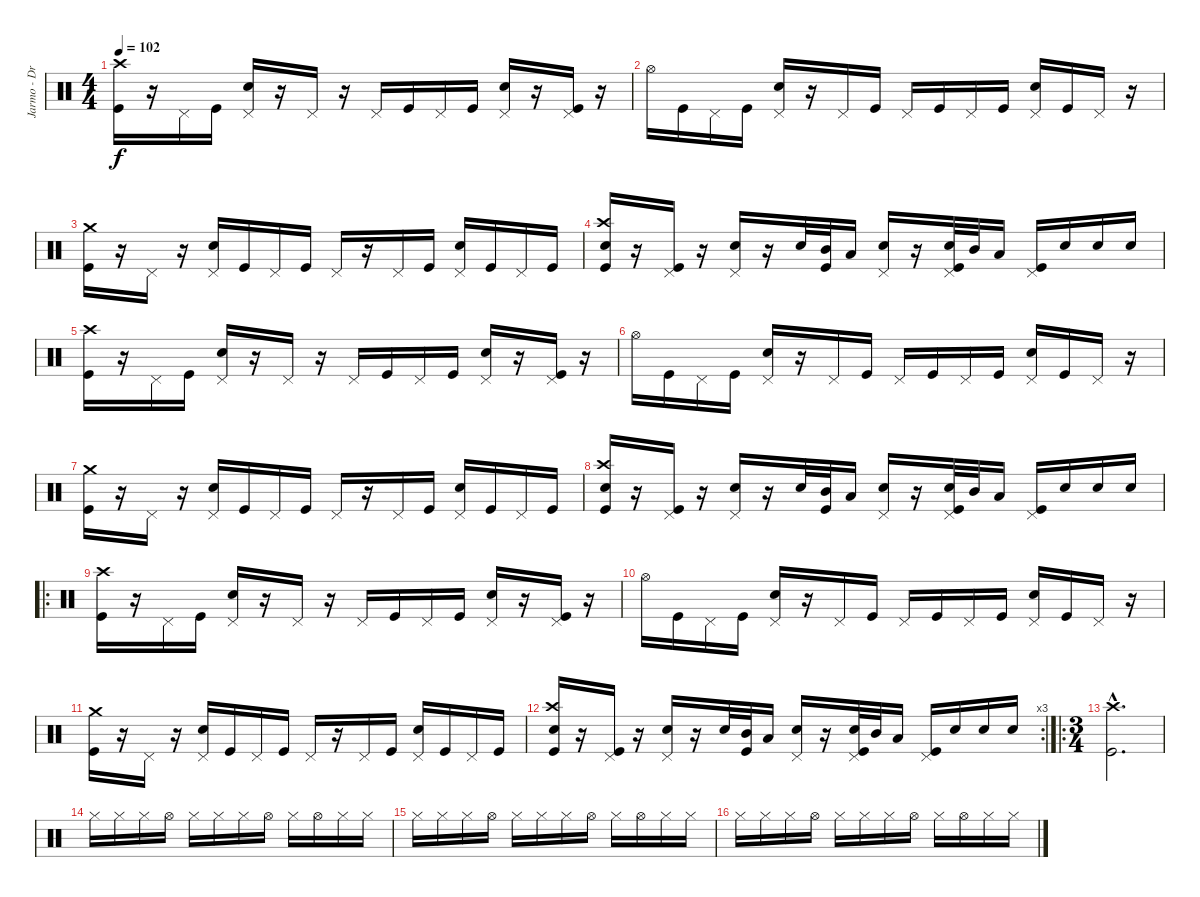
\track ("Jarmo - Drums" "Jarmo - Dr") {instrument percussion}
\staff {score}
\articulation defaults
\ts (4 4)
\tempo 102
\clef neutral
\ks c
("Kick (hit)" "Crash high (hit)").16{dy f} r.16 "Pedal Hi-Hat (hit)".16 "Kick (hit)".16 ("Electric Snare (hit)" "Pedal Hi-Hat (hit)").16 r.16 "Pedal Hi-Hat (hit)".16 r.16 "Pedal Hi-Hat (hit)".16 "Kick (hit)".16 "Pedal Hi-Hat (hit)".16 "Kick (hit)".16 ("Electric Snare (hit)" "Pedal Hi-Hat (hit)").16 r.16 ("Kick (hit)" "Pedal Hi-Hat (hit)").16 r.16 |
"Hi-Hat (open)".16 "Kick (hit)".16 "Pedal Hi-Hat (hit)".16 "Kick (hit)".16 ("Electric Snare (hit)" "Pedal Hi-Hat (hit)").16 r.16 "Pedal Hi-Hat (hit)".16 "Kick (hit)".16 "Pedal Hi-Hat (hit)".16 "Kick (hit)".16 "Pedal Hi-Hat (hit)".16 "Kick (hit)".16 ("Electric Snare (hit)" "Pedal Hi-Hat (hit)").16 "Kick (hit)".16 "Pedal Hi-Hat (hit)".16 r.16 |
("Kick (hit)" "Crash medium (hit)").16 r.16 "Pedal Hi-Hat (hit)".16 r.16 ("Electric Snare (hit)" "Pedal Hi-Hat (hit)").16 "Kick (hit)".16 "Pedal Hi-Hat (hit)".16 "Kick (hit)".16 "Pedal Hi-Hat (hit)".16 r.16 "Pedal Hi-Hat (hit)".16 "Kick (hit)".16 ("Electric Snare (hit)" "Pedal Hi-Hat (hit)").16 "Kick (hit)".16 "Pedal Hi-Hat (hit)".16 "Kick (hit)".16 |
("Kick (hit)" "Electric Snare (hit)" "Crash high (hit)").16 r.16 ("Kick (hit)" "Pedal Hi-Hat (hit)").16 r.16 ("Electric Snare (hit)" "Pedal Hi-Hat (hit)").16 r.16 "Electric Snare (hit)".32 ("Kick (hit)" "Mid Tom (hit)").32 "Low Tom (hit)".16 ("Electric Snare (hit)" "Pedal Hi-Hat (hit)").16 r.16 ("Kick (hit)" "Electric Snare (hit)" "Pedal Hi-Hat (hit)").32 "Mid Tom (hit)".32 "Low Tom (hit)".16 ("Kick (hit)" "Pedal Hi-Hat (hit)").16 "Electric Snare (hit)".16 "Electric Snare (hit)".16 "Electric Snare (hit)".16 |
("Kick (hit)" "Crash high (hit)").16 r.16 "Pedal Hi-Hat (hit)".16 "Kick (hit)".16 ("Electric Snare (hit)" "Pedal Hi-Hat (hit)").16 r.16 "Pedal Hi-Hat (hit)".16 r.16 "Pedal Hi-Hat (hit)".16 "Kick (hit)".16 "Pedal Hi-Hat (hit)".16 "Kick (hit)".16 ("Electric Snare (hit)" "Pedal Hi-Hat (hit)").16 r.16 ("Kick (hit)" "Pedal Hi-Hat (hit)").16 r.16 |
"Hi-Hat (open)".16 "Kick (hit)".16 "Pedal Hi-Hat (hit)".16 "Kick (hit)".16 ("Electric Snare (hit)" "Pedal Hi-Hat (hit)").16 r.16 "Pedal Hi-Hat (hit)".16 "Kick (hit)".16 "Pedal Hi-Hat (hit)".16 "Kick (hit)".16 "Pedal Hi-Hat (hit)".16 "Kick (hit)".16 ("Electric Snare (hit)" "Pedal Hi-Hat (hit)").16 "Kick (hit)".16 "Pedal Hi-Hat (hit)".16 r.16 |
("Kick (hit)" "Crash medium (hit)").16 r.16 "Pedal Hi-Hat (hit)".16 r.16 ("Electric Snare (hit)" "Pedal Hi-Hat (hit)").16 "Kick (hit)".16 "Pedal Hi-Hat (hit)".16 "Kick (hit)".16 "Pedal Hi-Hat (hit)".16 r.16 "Pedal Hi-Hat (hit)".16 "Kick (hit)".16 ("Electric Snare (hit)" "Pedal Hi-Hat (hit)").16 "Kick (hit)".16 "Pedal Hi-Hat (hit)".16 "Kick (hit)".16 |
("Kick (hit)" "Electric Snare (hit)" "Crash high (hit)").16 r.16 ("Kick (hit)" "Pedal Hi-Hat (hit)").16 r.16 ("Electric Snare (hit)" "Pedal Hi-Hat (hit)").16 r.16 "Electric Snare (hit)".32 ("Kick (hit)" "Mid Tom (hit)").32 "Low Tom (hit)".16 ("Electric Snare (hit)" "Pedal Hi-Hat (hit)").16 r.16 ("Kick (hit)" "Electric Snare (hit)" "Pedal Hi-Hat (hit)").32 "Mid Tom (hit)".32 "Low Tom (hit)".16 ("Kick (hit)" "Pedal Hi-Hat (hit)").16 "Electric Snare (hit)".16 "Electric Snare (hit)".16 "Electric Snare (hit)".16 |
\ro
("Kick (hit)" "Crash high (hit)").16 r.16 "Pedal Hi-Hat (hit)".16 "Kick (hit)".16 ("Electric Snare (hit)" "Pedal Hi-Hat (hit)").16 r.16 "Pedal Hi-Hat (hit)".16 r.16 "Pedal Hi-Hat (hit)".16 "Kick (hit)".16 "Pedal Hi-Hat (hit)".16 "Kick (hit)".16 ("Electric Snare (hit)" "Pedal Hi-Hat (hit)").16 r.16 ("Kick (hit)" "Pedal Hi-Hat (hit)").16 r.16 |
"Hi-Hat (open)".16 "Kick (hit)".16 "Pedal Hi-Hat (hit)".16 "Kick (hit)".16 ("Electric Snare (hit)" "Pedal Hi-Hat (hit)").16 r.16 "Pedal Hi-Hat (hit)".16 "Kick (hit)".16 "Pedal Hi-Hat (hit)".16 "Kick (hit)".16 "Pedal Hi-Hat (hit)".16 "Kick (hit)".16 ("Electric Snare (hit)" "Pedal Hi-Hat (hit)").16 "Kick (hit)".16 "Pedal Hi-Hat (hit)".16 r.16 |
("Kick (hit)" "Crash medium (hit)").16 r.16 "Pedal Hi-Hat (hit)".16 r.16 ("Electric Snare (hit)" "Pedal Hi-Hat (hit)").16 "Kick (hit)".16 "Pedal Hi-Hat (hit)".16 "Kick (hit)".16 "Pedal Hi-Hat (hit)".16 r.16 "Pedal Hi-Hat (hit)".16 "Kick (hit)".16 ("Electric Snare (hit)" "Pedal Hi-Hat (hit)").16 "Kick (hit)".16 "Pedal Hi-Hat (hit)".16 "Kick (hit)".16 |
\rc 3
("Kick (hit)" "Electric Snare (hit)" "Crash high (hit)").16 r.16 ("Kick (hit)" "Pedal Hi-Hat (hit)").16 r.16 ("Electric Snare (hit)" "Pedal Hi-Hat (hit)").16 r.16 "Electric Snare (hit)".32 ("Kick (hit)" "Mid Tom (hit)").32 "Low Tom (hit)".16 ("Electric Snare (hit)" "Pedal Hi-Hat (hit)").16 r.16 ("Kick (hit)" "Electric Snare (hit)" "Pedal Hi-Hat (hit)").32 "Mid Tom (hit)".32 "Low Tom (hit)".16 ("Kick (hit)" "Pedal Hi-Hat (hit)").16 "Electric Snare (hit)".16 "Electric Snare (hit)".16 "Electric Snare (hit)".16 |
\ro
\ts (3 4)
("Crash high (hit)"{hac} "Kick (hit)"{hac}).2{d} |
"Hi-Hat (closed)".16{volume 0} "Hi-Hat (closed)".16 "Hi-Hat (closed)".16 "Hi-Hat (open)".16 "Hi-Hat (closed)".16 "Hi-Hat (closed)".16 "Hi-Hat (closed)".16 "Hi-Hat (open)".16 "Hi-Hat (closed)".16 "Hi-Hat (open)".16 "Hi-Hat (closed)".16 "Hi-Hat (closed)".16 |
"Hi-Hat (closed)".16 "Hi-Hat (closed)".16 "Hi-Hat (closed)".16 "Hi-Hat (open)".16 "Hi-Hat (closed)".16 "Hi-Hat (closed)".16 "Hi-Hat (closed)".16 "Hi-Hat (open)".16 "Hi-Hat (closed)".16 "Hi-Hat (open)".16 "Hi-Hat (closed)".16 "Hi-Hat (closed)".16 |
"Hi-Hat (closed)".16 "Hi-Hat (closed)".16 "Hi-Hat (closed)".16 "Hi-Hat (open)".16 "Hi-Hat (closed)".16 "Hi-Hat (closed)".16 "Hi-Hat (closed)".16 "Hi-Hat (open)".16 "Hi-Hat (closed)".16 "Hi-Hat (open)".16 "Hi-Hat (closed)".16 "Hi-Hat (closed)".16
